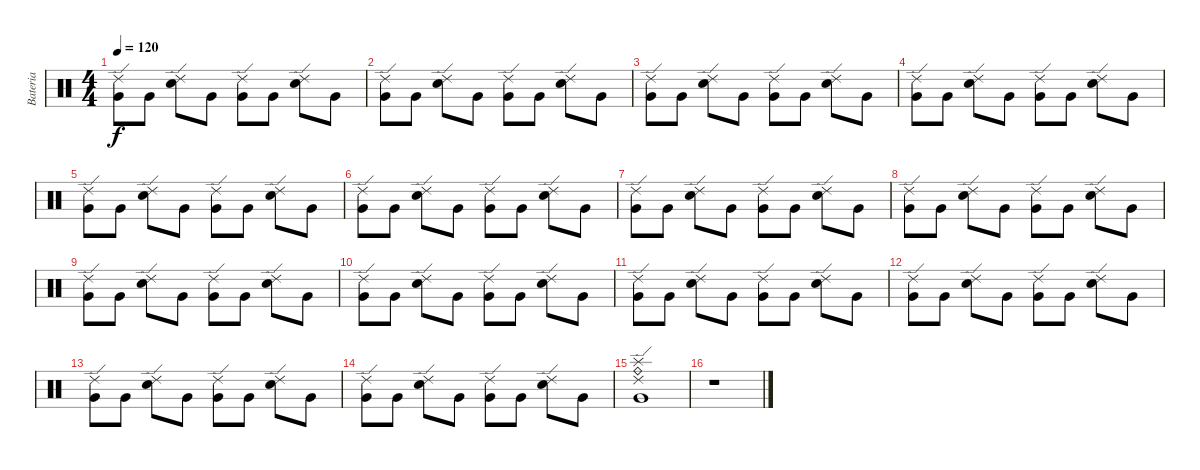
\track ("Bateria" "Bateria") {instrument percussion}
\staff {score}
\articulation defaults
\ts (4 4)
\tempo 120
\clef neutral
\ks c
("Ride (edge) 2" "Very Low Tom (hit)").8{dy f} "Very Low Tom (hit)".8 ("Snare (hit) 2" "Ride (edge) 2").8 "Very Low Tom (hit)".8 ("Very Low Tom (hit)" "Ride (edge) 2").8 "Very Low Tom (hit)".8 ("Snare (hit) 2" "Ride (edge) 2").8 "Very Low Tom (hit)".8 |
("Ride (edge) 2" "Very Low Tom (hit)").8 "Very Low Tom (hit)".8 ("Snare (hit) 2" "Ride (edge) 2").8 "Very Low Tom (hit)".8 ("Very Low Tom (hit)" "Ride (edge) 2").8 "Very Low Tom (hit)".8 ("Snare (hit) 2" "Ride (edge) 2").8 "Very Low Tom (hit)".8 |
("Ride (edge) 2" "Very Low Tom (hit)").8 "Very Low Tom (hit)".8 ("Snare (hit) 2" "Ride (edge) 2").8 "Very Low Tom (hit)".8 ("Very Low Tom (hit)" "Ride (edge) 2").8 "Very Low Tom (hit)".8 ("Snare (hit) 2" "Ride (edge) 2").8 "Very Low Tom (hit)".8 |
("Ride (edge) 2" "Very Low Tom (hit)").8 "Very Low Tom (hit)".8 ("Snare (hit) 2" "Ride (edge) 2").8 "Very Low Tom (hit)".8 ("Very Low Tom (hit)" "Ride (edge) 2").8 "Very Low Tom (hit)".8 ("Snare (hit) 2" "Ride (edge) 2").8 "Very Low Tom (hit)".8 |
("Ride (edge) 2" "Very Low Tom (hit)").8 "Very Low Tom (hit)".8 ("Snare (hit) 2" "Ride (edge) 2").8 "Very Low Tom (hit)".8 ("Very Low Tom (hit)" "Ride (edge) 2").8 "Very Low Tom (hit)".8 ("Snare (hit) 2" "Ride (edge) 2").8 "Very Low Tom (hit)".8 |
("Ride (edge) 2" "Very Low Tom (hit)").8 "Very Low Tom (hit)".8 ("Snare (hit) 2" "Ride (edge) 2").8 "Very Low Tom (hit)".8 ("Very Low Tom (hit)" "Ride (edge) 2").8 "Very Low Tom (hit)".8 ("Snare (hit) 2" "Ride (edge) 2").8 "Very Low Tom (hit)".8 |
("Ride (edge) 2" "Very Low Tom (hit)").8 "Very Low Tom (hit)".8 ("Snare (hit) 2" "Ride (edge) 2").8 "Very Low Tom (hit)".8 ("Very Low Tom (hit)" "Ride (edge) 2").8 "Very Low Tom (hit)".8 ("Snare (hit) 2" "Ride (edge) 2").8 "Very Low Tom (hit)".8 |
("Ride (edge) 2" "Very Low Tom (hit)").8 "Very Low Tom (hit)".8 ("Snare (hit) 2" "Ride (edge) 2").8 "Very Low Tom (hit)".8 ("Very Low Tom (hit)" "Ride (edge) 2").8 "Very Low Tom (hit)".8 ("Snare (hit) 2" "Ride (edge) 2").8 "Very Low Tom (hit)".8 |
("Ride (edge) 2" "Very Low Tom (hit)").8 "Very Low Tom (hit)".8 ("Snare (hit) 2" "Ride (edge) 2").8 "Very Low Tom (hit)".8 ("Very Low Tom (hit)" "Ride (edge) 2").8 "Very Low Tom (hit)".8 ("Snare (hit) 2" "Ride (edge) 2").8 "Very Low Tom (hit)".8 |
("Ride (edge) 2" "Very Low Tom (hit)").8 "Very Low Tom (hit)".8 ("Snare (hit) 2" "Ride (edge) 2").8 "Very Low Tom (hit)".8 ("Very Low Tom (hit)" "Ride (edge) 2").8 "Very Low Tom (hit)".8 ("Snare (hit) 2" "Ride (edge) 2").8 "Very Low Tom (hit)".8 |
("Ride (edge) 2" "Very Low Tom (hit)").8 "Very Low Tom (hit)".8 ("Snare (hit) 2" "Ride (edge) 2").8 "Very Low Tom (hit)".8 ("Very Low Tom (hit)" "Ride (edge) 2").8 "Very Low Tom (hit)".8 ("Snare (hit) 2" "Ride (edge) 2").8 "Very Low Tom (hit)".8 |
("Ride (edge) 2" "Very Low Tom (hit)").8 "Very Low Tom (hit)".8 ("Snare (hit) 2" "Ride (edge) 2").8 "Very Low Tom (hit)".8 ("Very Low Tom (hit)" "Ride (edge) 2").8 "Very Low Tom (hit)".8 ("Snare (hit) 2" "Ride (edge) 2").8 "Very Low Tom (hit)".8 |
("Ride (edge) 2" "Very Low Tom (hit)").8 "Very Low Tom (hit)".8 ("Snare (hit) 2" "Ride (edge) 2").8 "Very Low Tom (hit)".8 ("Very Low Tom (hit)" "Ride (edge) 2").8 "Very Low Tom (hit)".8 ("Snare (hit) 2" "Ride (edge) 2").8 "Very Low Tom (hit)".8 |
("Ride (edge) 2" "Very Low Tom (hit)").8 "Very Low Tom (hit)".8 ("Snare (hit) 2" "Ride (edge) 2").8 "Very Low Tom (hit)".8 ("Very Low Tom (hit)" "Ride (edge) 2").8 "Very Low Tom (hit)".8 ("Snare (hit) 2" "Ride (edge) 2").8 "Very Low Tom (hit)".8 |
("Ride (edge) 2" "Ride (bell)" "Very Low Tom (hit)" "Splash (hit)").1 |
r.1
